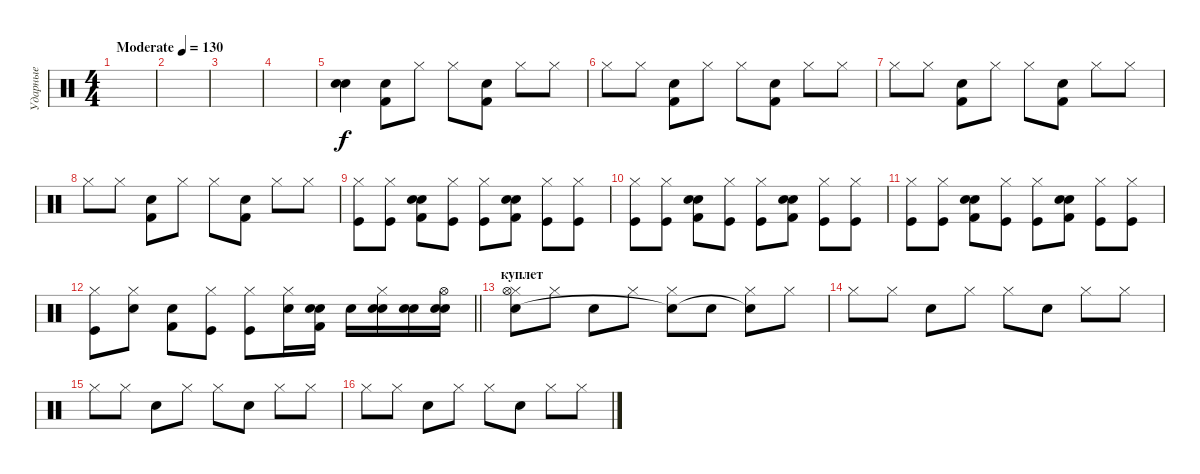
\track ("Ударные" "Ударные") {instrument percussion}
\staff {score}
\articulation defaults
\ts (4 4)
\tempo (130 "Moderate")
\clef neutral
\ks c
|
|
|
|
("Electric Snare (hit)" "Snare (hit) 2").4 ("Snare (hit) 2" "Kick (hit) 2").8 "Hi-Hat (closed)".8 "Hi-Hat (closed)".8 ("Snare (hit) 2" "Kick (hit) 2").8 "Hi-Hat (closed)".8 "Hi-Hat (closed)".8 |
"Hi-Hat (closed)".8 "Hi-Hat (closed)".8 ("Snare (hit) 2" "Kick (hit) 2").8 "Hi-Hat (closed)".8 "Hi-Hat (closed)".8 ("Snare (hit) 2" "Kick (hit) 2").8 "Hi-Hat (closed)".8 "Hi-Hat (closed)".8 |
"Hi-Hat (closed)".8 "Hi-Hat (closed)".8 ("Snare (hit) 2" "Kick (hit) 2").8 "Hi-Hat (closed)".8 "Hi-Hat (closed)".8 ("Snare (hit) 2" "Kick (hit) 2").8 "Hi-Hat (closed)".8 "Hi-Hat (closed)".8 |
"Hi-Hat (closed)".8 "Hi-Hat (closed)".8 ("Snare (hit) 2" "Kick (hit) 2").8 "Hi-Hat (closed)".8 "Hi-Hat (closed)".8 ("Snare (hit) 2" "Kick (hit) 2").8 "Hi-Hat (closed)".8 "Hi-Hat (closed)".8 |
("Hi-Hat (closed)" "Kick (hit)").8 ("Hi-Hat (closed)" "Kick (hit)").8 ("Snare (hit) 2" "Kick (hit) 2" "Electric Snare (hit)").8 ("Hi-Hat (closed)" "Kick (hit)").8 ("Hi-Hat (closed)" "Kick (hit)").8 ("Snare (hit) 2" "Kick (hit) 2" "Electric Snare (hit)").8 ("Hi-Hat (closed)" "Kick (hit)").8 ("Hi-Hat (closed)" "Kick (hit)").8 |
("Hi-Hat (closed)" "Kick (hit)").8 ("Hi-Hat (closed)" "Kick (hit)").8 ("Snare (hit) 2" "Kick (hit) 2" "Electric Snare (hit)").8 ("Hi-Hat (closed)" "Kick (hit)").8 ("Hi-Hat (closed)" "Kick (hit)").8 ("Snare (hit) 2" "Kick (hit) 2" "Electric Snare (hit)").8 ("Hi-Hat (closed)" "Kick (hit)").8 ("Hi-Hat (closed)" "Kick (hit)").8 |
("Hi-Hat (closed)" "Kick (hit)").8 ("Hi-Hat (closed)" "Kick (hit)").8 ("Snare (hit) 2" "Kick (hit) 2" "Electric Snare (hit)").8 ("Hi-Hat (closed)" "Kick (hit)").8 ("Hi-Hat (closed)" "Kick (hit)").8 ("Snare (hit) 2" "Kick (hit) 2" "Electric Snare (hit)").8 ("Hi-Hat (closed)" "Kick (hit)").8 ("Hi-Hat (closed)" "Kick (hit)").8 |
\barLineRight lightlight
("Hi-Hat (closed)" "Kick (hit)").8 ("Hi-Hat (closed)" "Electric Snare (hit)").8 ("Snare (hit) 2" "Kick (hit) 2").8 ("Hi-Hat (closed)" "Kick (hit)").8 ("Hi-Hat (closed)" "Kick (hit)").8 ("Snare (hit) 2" "Hi-Hat (closed)").16 ("Snare (hit) 2" "Kick (hit) 2" "Electric Snare (hit)").16 "Snare (hit) 2".16 ("Snare (hit) 2" "Hi-Hat (closed)" "Electric Snare (hit)").16 ("Snare (hit) 2" "Electric Snare (hit)").16 ("Snare (hit) 2" "Electric Snare (hit)" "Hi-Hat (open)").16 |
\section ("" "куплет")
("Hi-Hat (closed)" "Electric Snare (hit)" "Hi-Hat (open)").8 "Hi-Hat (closed)".8 "Electric Snare (hit)".8 "Hi-Hat (closed)".8 ("Hi-Hat (closed)" "Snare (hit)"{t}).8 "Snare (hit) 2".8 ("Hi-Hat (closed)" "Snare (hit)"{t}).8 "Hi-Hat (closed)".8 |
"Hi-Hat (closed)".8 "Hi-Hat (closed)".8 "Electric Snare (hit)".8 "Hi-Hat (closed)".8 "Hi-Hat (closed)".8 "Snare (hit) 2".8 "Hi-Hat (closed)".8 "Hi-Hat (closed)".8 |
"Hi-Hat (closed)".8 "Hi-Hat (closed)".8 "Electric Snare (hit)".8 "Hi-Hat (closed)".8 "Hi-Hat (closed)".8 "Snare (hit) 2".8 "Hi-Hat (closed)".8 "Hi-Hat (closed)".8 |
"Hi-Hat (closed)".8 "Hi-Hat (closed)".8 "Electric Snare (hit)".8 "Hi-Hat (closed)".8 "Hi-Hat (closed)".8 "Snare (hit) 2".8 "Hi-Hat (closed)".8 "Hi-Hat (closed)".8
